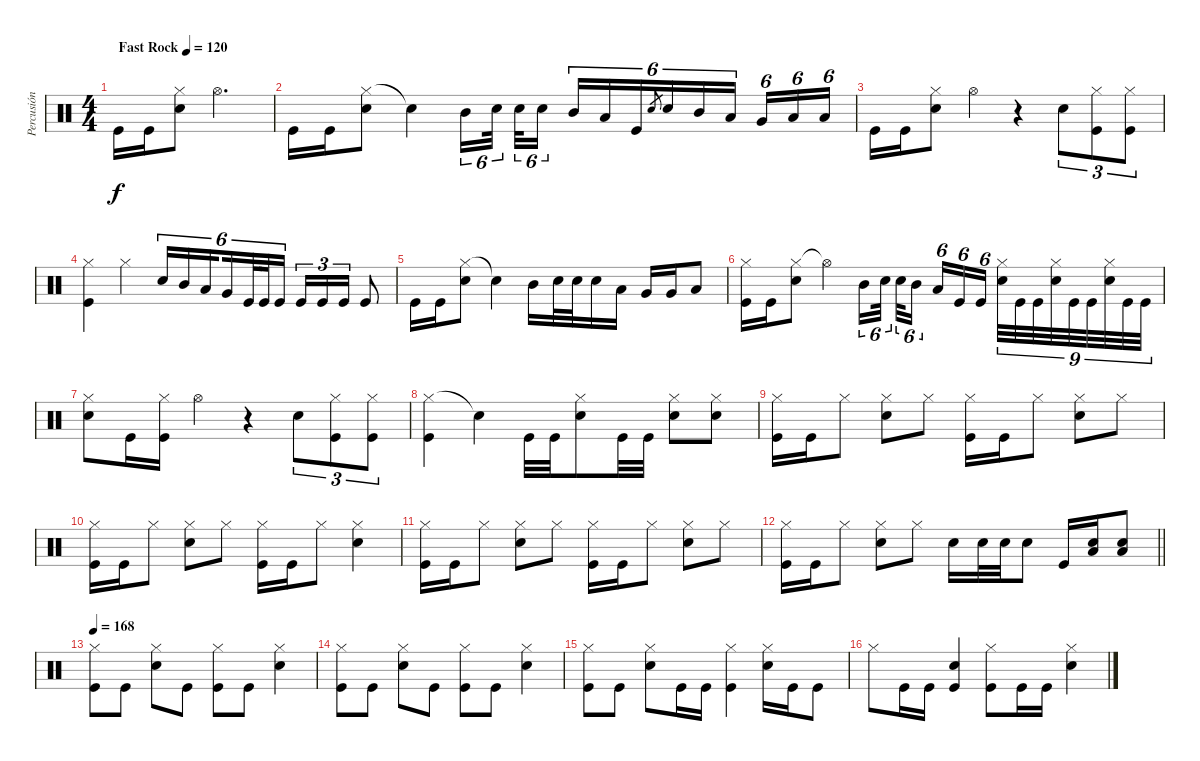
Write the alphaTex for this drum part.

\track ("Percusión" "Percusión") {instrument percussion}
\staff {score}
\articulation defaults
\ts (4 4)
\tempo (120 "Fast Rock")
\clef neutral
\ks c "Kick (hit)".16{dy f} "Kick (hit)".16
("Hi-Hat (closed)" "Snare (hit) 2").8 "Hi-Hat (open)".2{d} |
"Kick (hit)".16 "Kick (hit)".16 ("Hi-Hat (closed)" "Snare (hit) 2").8 "Snare (hit)"{t}.4 "Mid Tom (hit)".16{tu (6 4)} "Snare (hit) 2".32{tu (6 4) beam splitsecondary} "Snare (hit) 2".32{tu (6 4)} "Snare (hit) 2".16{tu (6 4) beam splitsecondary} "Mid Tom (hit)".16{tu (6 4)} "Low Tom (hit)".16{tu (6 4)} "Kick (hit)".16{tu (6 4)} "Snare (hit) 2".8{gr} "Snare (hit) 2".16{tu (6 4)} "Mid Tom (hit)".16{tu (6 4)} "Low Tom (hit)".16{tu (6 4) beam splitsecondary} "Very Low Tom (hit)".16{tu (6 4)} "Low Floor Tom (hit)".16{tu (6 4)} "Low Floor Tom (hit)".16{tu (6 4)} |
"Kick (hit)".16 "Kick (hit)".16 ("Hi-Hat (closed)" "Snare (hit) 2").8 "Hi-Hat (open)".4 r.4 "Snare (hit) 2".8{tu (3 2)} ("Hi-Hat (closed)" "Kick (hit)").8{tu (3 2)} ("Hi-Hat (closed)" "Kick (hit)").8{tu (3 2)} |
("Hi-Hat (closed)" "Kick (hit)").4 "Hi-Hat (closed)".4 "Snare (hit) 2".16{tu (6 4)} "Mid Tom (hit)".16{tu (6 4)} "Low Tom (hit)".16{tu (6 4) beam splitsecondary} "Very Low Tom (hit)".16{tu (6 4)} "Kick (hit)".32{tu (6 4) beam splitsecondary} "Kick (hit)".32{tu (6 4)} "Kick (hit)".16{tu (6 4)} "Kick (hit)".16{tu (3 2)} "Kick (hit)".16{tu (3 2)} "Kick (hit)".16{tu (3 2)} "Kick (hit)".8 |
"Kick (hit)".16 "Kick (hit)".16 ("Hi-Hat (closed)" "Snare (hit) 2").8 "Snare (hit)"{t}.4 "Mid Tom (hit)".16 "Snare (hit) 2".32 "Snare (hit) 2".32 "Snare (hit) 2".16 "Low Tom (hit)".16 "Very Low Tom (hit)".16 "Very Low Tom (hit)".16 "Low Floor Tom (hit)".8 |
("Hi-Hat (closed)" "Kick (hit)").16 "Kick (hit)".16 ("Hi-Hat (closed)" "Snare (hit) 2").8 "Hi-Hat (open)"{t}.4 "Mid Tom (hit)".16{tu (6 4)} "Snare (hit) 2".32{tu (6 4) beam splitsecondary} "Snare (hit) 2".32{tu (6 4)} "Mid Tom (hit)".16{tu (6 4) beam splitsecondary} "Low Tom (hit)".16{tu (6 4)} "Kick (hit)".16{tu (6 4)} "Kick (hit)".16{tu (6 4)} ("Hi-Hat (closed)" "Snare (hit) 2").32{tu (9 8)} "Kick (hit)".32{tu (9 8)} "Kick (hit)".32{tu (9 8)} ("Hi-Hat (closed)" "Snare (hit) 2").32{tu (9 8)} "Kick (hit)".32{tu (9 8)} "Kick (hit)".32{tu (9 8)} ("Hi-Hat (closed)" "Snare (hit) 2").32{tu (9 8)} "Kick (hit)".32{tu (9 8)} "Kick (hit)".32{tu (9 8)} |
("Hi-Hat (closed)" "Snare (hit) 2").8 "Kick (hit)".16 ("Hi-Hat (closed)" "Kick (hit)").16 "Hi-Hat (open)".4 r.4 "Snare (hit) 2".8{tu (3 2)} ("Hi-Hat (closed)" "Kick (hit)").8{tu (3 2)} ("Hi-Hat (closed)" "Kick (hit)").8{tu (3 2)} |
("Hi-Hat (closed)" "Kick (hit)").4 "Snare (hit)"{t}.4 "Kick (hit)".32 "Kick (hit)".32 ("Hi-Hat (closed)" "Snare (hit) 2").8 "Kick (hit)".32 "Kick (hit)".32 ("Hi-Hat (closed)" "Snare (hit) 2").8 ("Hi-Hat (closed)" "Snare (hit) 2").8 |
("Hi-Hat (closed)" "Kick (hit)").16 "Kick (hit)".16 "Hi-Hat (closed)".8 ("Hi-Hat (closed)" "Snare (hit) 2").8 "Hi-Hat (closed)".8 ("Hi-Hat (closed)" "Kick (hit)").16 "Kick (hit)".16 "Hi-Hat (closed)".8 ("Hi-Hat (closed)" "Snare (hit) 2").8 "Hi-Hat (closed)".8 |
("Hi-Hat (closed)" "Kick (hit)").16 "Kick (hit)".16 "Hi-Hat (closed)".8 ("Hi-Hat (closed)" "Snare (hit) 2").8 "Hi-Hat (closed)".8 ("Hi-Hat (closed)" "Kick (hit)").16 "Kick (hit)".16 "Hi-Hat (closed)".8 ("Hi-Hat (closed)" "Snare (hit) 2").4 |
("Hi-Hat (closed)" "Kick (hit)").16 "Kick (hit)".16 "Hi-Hat (closed)".8 ("Hi-Hat (closed)" "Snare (hit) 2").8 "Hi-Hat (closed)".8 ("Hi-Hat (closed)" "Kick (hit)").16 "Kick (hit)".16 "Hi-Hat (closed)".8 ("Hi-Hat (closed)" "Snare (hit) 2").8 "Hi-Hat (closed)".8 |
\barLineRight lightlight
("Hi-Hat (closed)" "Kick (hit)").16 "Kick (hit)".16 "Hi-Hat (closed)".8 ("Hi-Hat (closed)" "Snare (hit) 2").8 "Hi-Hat (closed)".8 "Snare (hit) 2".16 "Snare (hit) 2".32 "Snare (hit) 2".32 "Snare (hit) 2".8 "Kick (hit)".16 ("Snare (hit) 2" "Low Tom (hit)").16 ("Snare (hit) 2" "Low Tom (hit)").8 |
\tempo 168
("Hi-Hat (closed)" "Kick (hit)").8 "Kick (hit)".8 ("Hi-Hat (closed)" "Snare (hit) 2").8 "Kick (hit)".8 ("Hi-Hat (closed)" "Kick (hit)").8 "Kick (hit)".8 ("Hi-Hat (closed)" "Snare (hit) 2").4 |
("Hi-Hat (closed)" "Kick (hit)").8 "Kick (hit)".8 ("Hi-Hat (closed)" "Snare (hit) 2").8 "Kick (hit)".8 ("Hi-Hat (closed)" "Kick (hit)").8 "Kick (hit)".8 ("Hi-Hat (closed)" "Snare (hit) 2").4 |
("Hi-Hat (closed)" "Kick (hit)").8 "Kick (hit)".8 ("Hi-Hat (closed)" "Snare (hit) 2").8 "Kick (hit)".16 "Kick (hit)".16 ("Hi-Hat (closed)" "Kick (hit)").4 ("Hi-Hat (closed)" "Snare (hit) 2").16 "Kick (hit)".16 "Kick (hit)".8 |
"Hi-Hat (closed)".8 "Kick (hit)".16 "Kick (hit)".16 ("Snare (hit) 2" "Kick (hit)").4 ("Hi-Hat (closed)" "Kick (hit)").8 "Kick (hit)".16 "Kick (hit)".16 ("Hi-Hat (closed)" "Snare (hit) 2").4
